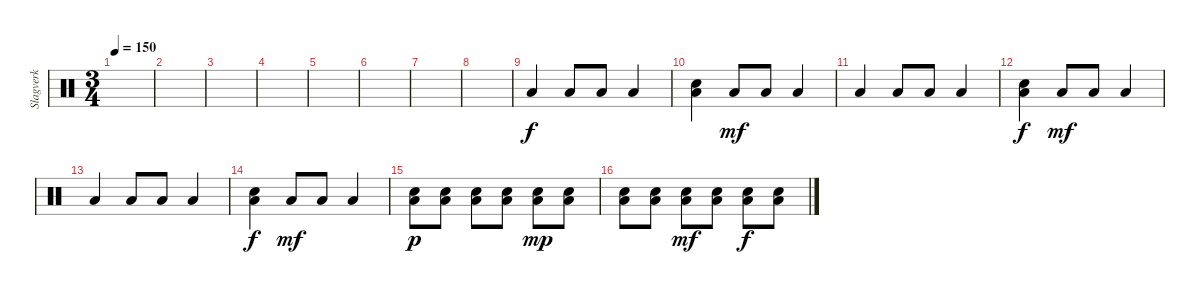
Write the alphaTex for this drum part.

\track ("Slagverk" "Slagverk") {instrument percussion}
\staff {score}
\articulation defaults
\ts (3 4)
\tempo 150
\clef neutral
\ks c
|
|
|
|
|
|
|
|
"Low Floor Tom (hit)".4 "Low Floor Tom (hit)".8 "Low Floor Tom (hit)".8 "Low Floor Tom (hit)".4 |
("Low Floor Tom (hit)" "Snare (hit) 2").4{dy f} "Low Floor Tom (hit)".8{dy mf} "Low Floor Tom (hit)".8 "Low Floor Tom (hit)".4 |
"Low Floor Tom (hit)".4 "Low Floor Tom (hit)".8 "Low Floor Tom (hit)".8 "Low Floor Tom (hit)".4 |
("Low Floor Tom (hit)" "Snare (hit) 2").4{dy f} "Low Floor Tom (hit)".8{dy mf} "Low Floor Tom (hit)".8 "Low Floor Tom (hit)".4 |
"Low Floor Tom (hit)".4 "Low Floor Tom (hit)".8 "Low Floor Tom (hit)".8 "Low Floor Tom (hit)".4 |
("Low Floor Tom (hit)" "Snare (hit) 2").4{dy f} "Low Floor Tom (hit)".8{dy mf} "Low Floor Tom (hit)".8 "Low Floor Tom (hit)".4 |
("Snare (hit) 2" "Low Floor Tom (hit)").8{dy p} ("Snare (hit) 2" "Low Floor Tom (hit)").8 ("Snare (hit) 2" "Low Floor Tom (hit)").8 ("Snare (hit) 2" "Low Floor Tom (hit)").8 ("Snare (hit) 2" "Low Floor Tom (hit)").8{dy mp} ("Snare (hit) 2" "Low Floor Tom (hit)").8 |
("Snare (hit) 2" "Low Floor Tom (hit)").8 ("Snare (hit) 2" "Low Floor Tom (hit)").8 ("Snare (hit) 2" "Low Floor Tom (hit)").8{dy mf} ("Snare (hit) 2" "Low Floor Tom (hit)").8 ("Snare (hit) 2" "Low Floor Tom (hit)").8{dy f} ("Snare (hit) 2" "Low Floor Tom (hit)").8
